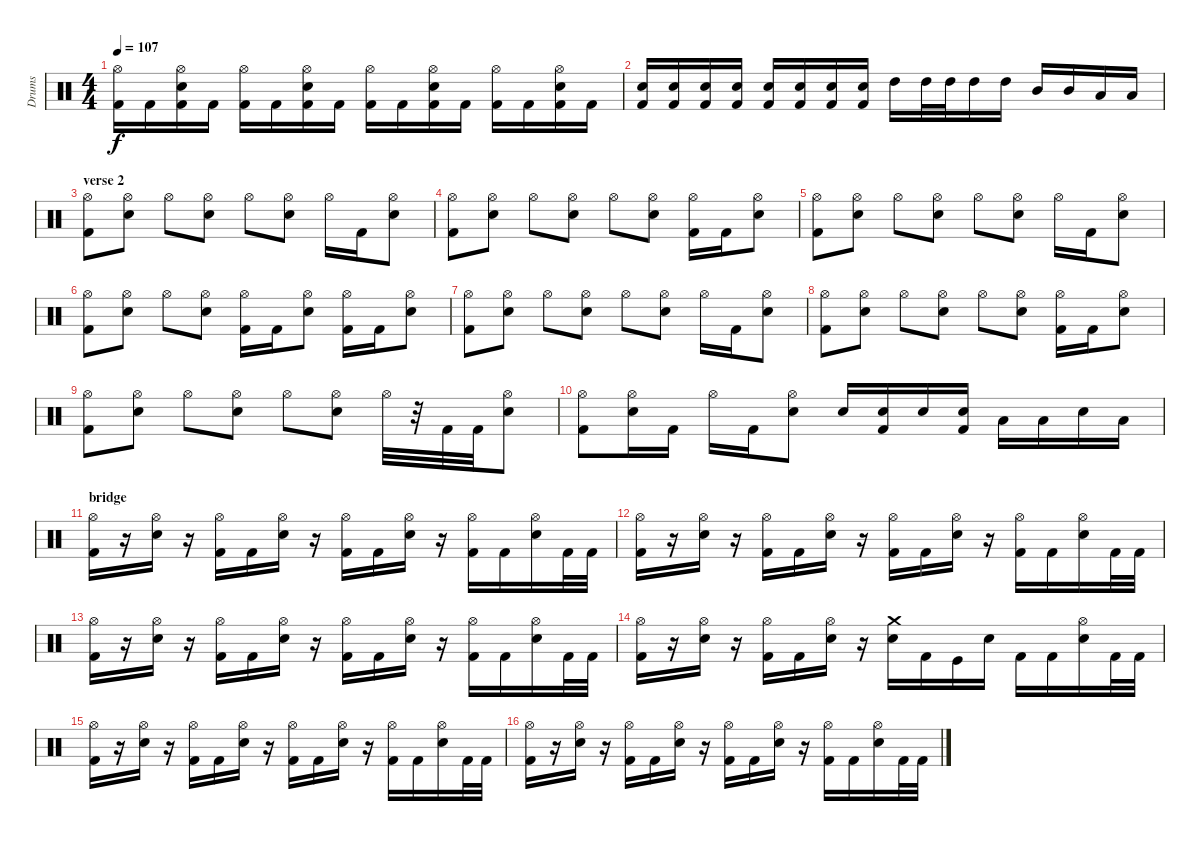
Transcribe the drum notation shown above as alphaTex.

\track ("Drums" "Drums") {instrument percussion}
\staff {score}
\articulation defaults
\ts (4 4)
\tempo 107
\clef neutral
\ks c
("Hi-Hat (open)" "Kick (hit) 2").16{dy f} "Kick (hit) 2".16 ("Hi-Hat (open)" "Snare (hit) 2" "Kick (hit) 2").16 "Kick (hit) 2".16 ("Hi-Hat (open)" "Kick (hit) 2").16 "Kick (hit) 2".16 ("Hi-Hat (open)" "Snare (hit) 2" "Kick (hit) 2").16 "Kick (hit) 2".16 ("Hi-Hat (open)" "Kick (hit) 2").16 "Kick (hit) 2".16 ("Hi-Hat (open)" "Snare (hit) 2" "Kick (hit) 2").16 "Kick (hit) 2".16 ("Hi-Hat (open)" "Kick (hit) 2").16 "Kick (hit) 2".16 ("Hi-Hat (open)" "Snare (hit) 2" "Kick (hit) 2").16 "Kick (hit) 2".16 |
("Snare (hit) 2" "Kick (hit) 2").16 ("Snare (hit) 2" "Kick (hit) 2").16 ("Snare (hit) 2" "Kick (hit) 2").16 ("Snare (hit) 2" "Kick (hit) 2").16 ("Snare (hit) 2" "Kick (hit) 2").16 ("Snare (hit) 2" "Kick (hit) 2").16 ("Snare (hit) 2" "Kick (hit) 2").16 ("Snare (hit) 2" "Kick (hit) 2").16 "High Tom (hit)".16 "High Tom (hit)".32 "High Tom (hit)".32 "High Tom (hit)".16 "High Tom (hit)".16 "Mid Tom (hit)".16 "Mid Tom (hit)".16 "Low Tom (hit)".16 "Low Tom (hit)".16 |
\section ("" "verse 2")
("Hi-Hat (open)" "Kick (hit) 2").8 ("Hi-Hat (open)" "Snare (hit) 2").8 "Hi-Hat (open)".8 ("Hi-Hat (open)" "Snare (hit) 2").8 "Hi-Hat (open)".8 ("Hi-Hat (open)" "Snare (hit) 2").8 "Hi-Hat (open)".16 "Kick (hit) 2".16 ("Hi-Hat (open)" "Snare (hit) 2").8 |
("Hi-Hat (open)" "Kick (hit) 2").8 ("Hi-Hat (open)" "Snare (hit) 2").8 "Hi-Hat (open)".8 ("Hi-Hat (open)" "Snare (hit) 2").8 "Hi-Hat (open)".8 ("Hi-Hat (open)" "Snare (hit) 2").8 ("Hi-Hat (open)" "Kick (hit) 2").16 "Kick (hit) 2".16 ("Hi-Hat (open)" "Snare (hit) 2").8 |
("Hi-Hat (open)" "Kick (hit) 2").8 ("Hi-Hat (open)" "Snare (hit) 2").8 "Hi-Hat (open)".8 ("Hi-Hat (open)" "Snare (hit) 2").8 "Hi-Hat (open)".8 ("Hi-Hat (open)" "Snare (hit) 2").8 "Hi-Hat (open)".16 "Kick (hit) 2".16 ("Hi-Hat (open)" "Snare (hit) 2").8 |
("Hi-Hat (open)" "Kick (hit) 2").8 ("Hi-Hat (open)" "Snare (hit) 2").8 "Hi-Hat (open)".8 ("Hi-Hat (open)" "Snare (hit) 2").8 ("Hi-Hat (open)" "Kick (hit) 2").16 "Kick (hit) 2".16 ("Hi-Hat (open)" "Snare (hit) 2").8 ("Hi-Hat (open)" "Kick (hit) 2").16 "Kick (hit) 2".16 ("Hi-Hat (open)" "Snare (hit) 2").8 |
("Hi-Hat (open)" "Kick (hit) 2").8 ("Hi-Hat (open)" "Snare (hit) 2").8 "Hi-Hat (open)".8 ("Hi-Hat (open)" "Snare (hit) 2").8 "Hi-Hat (open)".8 ("Hi-Hat (open)" "Snare (hit) 2").8 "Hi-Hat (open)".16 "Kick (hit) 2".16 ("Hi-Hat (open)" "Snare (hit) 2").8 |
("Hi-Hat (open)" "Kick (hit) 2").8 ("Hi-Hat (open)" "Snare (hit) 2").8 "Hi-Hat (open)".8 ("Hi-Hat (open)" "Snare (hit) 2").8 "Hi-Hat (open)".8 ("Hi-Hat (open)" "Snare (hit) 2").8 ("Hi-Hat (open)" "Kick (hit) 2").16 "Kick (hit) 2".16 ("Hi-Hat (open)" "Snare (hit) 2").8 |
("Hi-Hat (open)" "Kick (hit) 2").8 ("Hi-Hat (open)" "Snare (hit) 2").8 "Hi-Hat (open)".8 ("Hi-Hat (open)" "Snare (hit) 2").8 "Hi-Hat (open)".8 ("Hi-Hat (open)" "Snare (hit) 2").8 "Hi-Hat (open)".32 r.32 "Kick (hit) 2".32 "Kick (hit) 2".32 ("Hi-Hat (open)" "Snare (hit) 2").8 |
("Hi-Hat (open)" "Kick (hit) 2").8 ("Hi-Hat (open)" "Snare (hit) 2").16 "Kick (hit) 2".16 "Hi-Hat (open)".16 "Kick (hit) 2".16 ("Hi-Hat (open)" "Snare (hit) 2").8 "Snare (hit) 2".16 ("Snare (hit) 2" "Kick (hit) 2").16 "Snare (hit) 2".16 ("Snare (hit) 2" "Kick (hit) 2").16 "Low Tom (hit)".16 "Low Tom (hit)".16 "Snare (hit) 2".16 "Low Tom (hit)".16 |
\section ("" "bridge")
("Hi-Hat (open)" "Kick (hit) 2").16 r.16 ("Hi-Hat (open)" "Snare (hit) 2").16 r.16 ("Hi-Hat (open)" "Kick (hit) 2").16 "Kick (hit) 2".16 ("Hi-Hat (open)" "Snare (hit) 2").16 r.16 ("Hi-Hat (open)" "Kick (hit) 2").16 "Kick (hit) 2".16 ("Hi-Hat (open)" "Snare (hit) 2").16 r.16 ("Hi-Hat (open)" "Kick (hit) 2").16 "Kick (hit) 2".16 ("Hi-Hat (open)" "Snare (hit) 2").16 "Kick (hit) 2".32 "Kick (hit) 2".32 |
("Hi-Hat (open)" "Kick (hit) 2").16 r.16 ("Hi-Hat (open)" "Snare (hit) 2").16 r.16 ("Hi-Hat (open)" "Kick (hit) 2").16 "Kick (hit) 2".16 ("Hi-Hat (open)" "Snare (hit) 2").16 r.16 ("Hi-Hat (open)" "Kick (hit) 2").16 "Kick (hit) 2".16 ("Hi-Hat (open)" "Snare (hit) 2").16 r.16 ("Hi-Hat (open)" "Kick (hit) 2").16 "Kick (hit) 2".16 ("Hi-Hat (open)" "Snare (hit) 2").16 "Kick (hit) 2".32 "Kick (hit) 2".32 |
("Hi-Hat (open)" "Kick (hit) 2").16 r.16 ("Hi-Hat (open)" "Snare (hit) 2").16 r.16 ("Hi-Hat (open)" "Kick (hit) 2").16 "Kick (hit) 2".16 ("Hi-Hat (open)" "Snare (hit) 2").16 r.16 ("Hi-Hat (open)" "Kick (hit) 2").16 "Kick (hit) 2".16 ("Hi-Hat (open)" "Snare (hit) 2").16 r.16 ("Hi-Hat (open)" "Kick (hit) 2").16 "Kick (hit) 2".16 ("Hi-Hat (open)" "Snare (hit) 2").16 "Kick (hit) 2".32 "Kick (hit) 2".32 |
("Hi-Hat (open)" "Kick (hit) 2").16 r.16 ("Hi-Hat (open)" "Snare (hit) 2").16 r.16 ("Hi-Hat (open)" "Kick (hit) 2").16 "Kick (hit) 2".16 ("Hi-Hat (open)" "Snare (hit) 2").16 r.16 ("Crash medium (hit)" "Snare (hit) 2").16 "Kick (hit) 2".16 "Kick (hit)".16 "Snare (hit) 2".16 "Kick (hit) 2".16 "Kick (hit) 2".16 ("Hi-Hat (open)" "Snare (hit) 2").16 "Kick (hit) 2".32 "Kick (hit) 2".32 |
("Hi-Hat (open)" "Kick (hit) 2").16 r.16 ("Hi-Hat (open)" "Snare (hit) 2").16 r.16 ("Hi-Hat (open)" "Kick (hit) 2").16 "Kick (hit) 2".16 ("Hi-Hat (open)" "Snare (hit) 2").16 r.16 ("Hi-Hat (open)" "Kick (hit) 2").16 "Kick (hit) 2".16 ("Hi-Hat (open)" "Snare (hit) 2").16 r.16 ("Hi-Hat (open)" "Kick (hit) 2").16 "Kick (hit) 2".16 ("Hi-Hat (open)" "Snare (hit) 2").16 "Kick (hit) 2".32 "Kick (hit) 2".32 |
("Hi-Hat (open)" "Kick (hit) 2").16 r.16 ("Hi-Hat (open)" "Snare (hit) 2").16 r.16 ("Hi-Hat (open)" "Kick (hit) 2").16 "Kick (hit) 2".16 ("Hi-Hat (open)" "Snare (hit) 2").16 r.16 ("Hi-Hat (open)" "Kick (hit) 2").16 "Kick (hit) 2".16 ("Hi-Hat (open)" "Snare (hit) 2").16 r.16 ("Hi-Hat (open)" "Kick (hit) 2").16 "Kick (hit) 2".16 ("Hi-Hat (open)" "Snare (hit) 2").16 "Kick (hit) 2".32 "Kick (hit) 2".32
